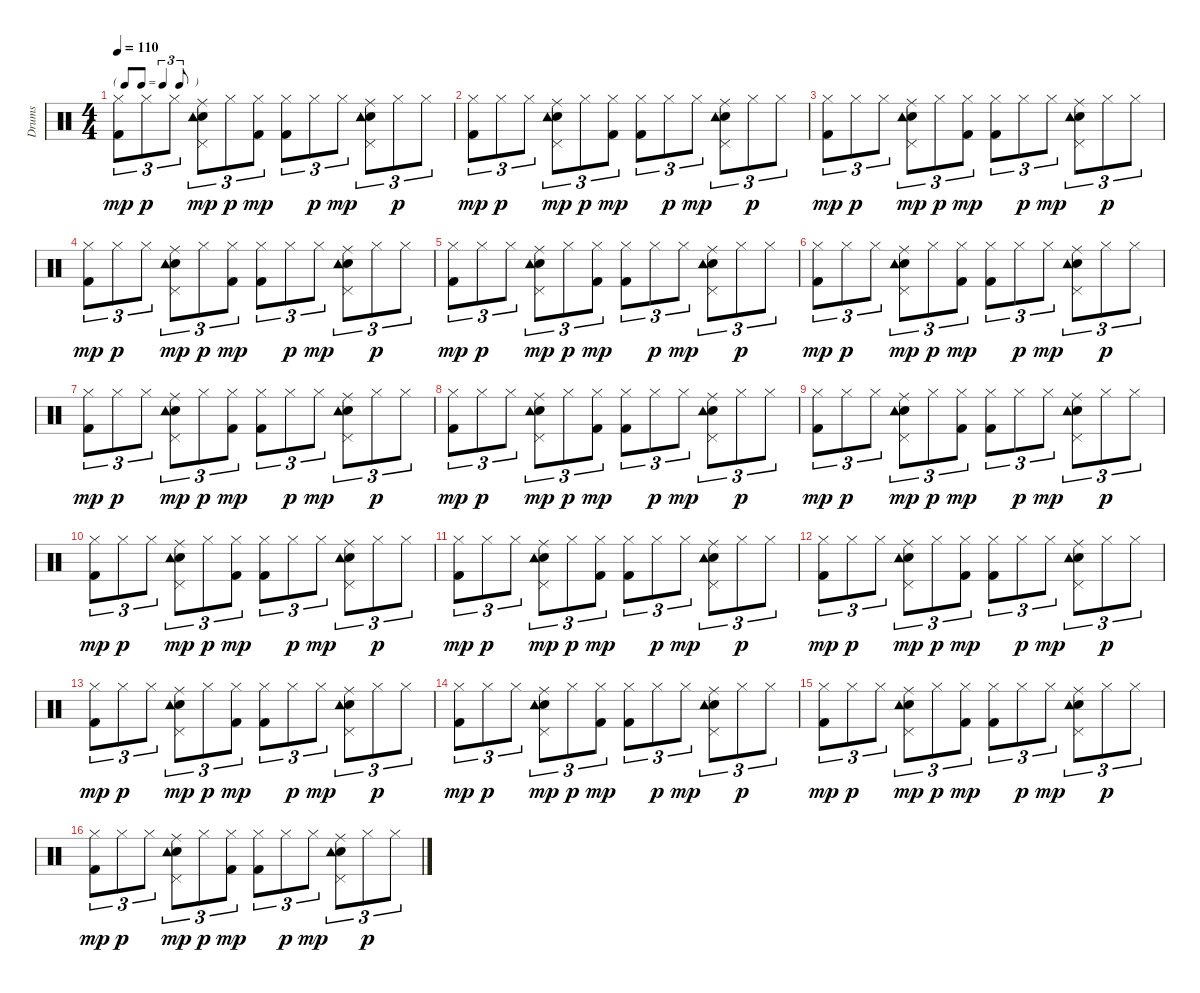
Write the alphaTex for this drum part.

\track ("Drums" "Drums") {instrument percussion}
\staff {score}
\articulation defaults
\ts (4 4)
\tf triplet8th
\tempo 110
\clef neutral
\ks c
("Kick (hit) 2" "Hi-Hat (closed)").8{tu (3 2) dy mp} "Hi-Hat (closed)".8{tu (3 2) dy p} "Hi-Hat (closed)".8{tu (3 2)} ("Snare (hit) 2" "Pedal Hi-Hat (hit)" "Ride (middle)" "Tambourine (hit)").8{tu (3 2) dy mp} "Hi-Hat (closed)".8{tu (3 2) dy p} ("Hi-Hat (closed)" "Kick (hit) 2").8{tu (3 2) dy mp} ("Kick (hit) 2" "Hi-Hat (closed)").8{tu (3 2)} "Hi-Hat (closed)".8{tu (3 2) dy p} "Hi-Hat (closed)".8{tu (3 2) dy mp} ("Snare (hit) 2" "Pedal Hi-Hat (hit)" "Ride (middle)" "Tambourine (hit)").8{tu (3 2)} "Hi-Hat (closed)".8{tu (3 2) dy p} "Hi-Hat (closed)".8{tu (3 2)} |
("Kick (hit) 2" "Hi-Hat (closed)").8{tu (3 2) dy mp} "Hi-Hat (closed)".8{tu (3 2) dy p} "Hi-Hat (closed)".8{tu (3 2)} ("Snare (hit) 2" "Pedal Hi-Hat (hit)" "Ride (middle)" "Tambourine (hit)").8{tu (3 2) dy mp} "Hi-Hat (closed)".8{tu (3 2) dy p} ("Hi-Hat (closed)" "Kick (hit) 2").8{tu (3 2) dy mp} ("Kick (hit) 2" "Hi-Hat (closed)").8{tu (3 2)} "Hi-Hat (closed)".8{tu (3 2) dy p} "Hi-Hat (closed)".8{tu (3 2) dy mp} ("Snare (hit) 2" "Pedal Hi-Hat (hit)" "Ride (middle)" "Tambourine (hit)").8{tu (3 2)} "Hi-Hat (closed)".8{tu (3 2) dy p} "Hi-Hat (closed)".8{tu (3 2)} |
("Kick (hit) 2" "Hi-Hat (closed)").8{tu (3 2) dy mp} "Hi-Hat (closed)".8{tu (3 2) dy p} "Hi-Hat (closed)".8{tu (3 2)} ("Snare (hit) 2" "Pedal Hi-Hat (hit)" "Ride (middle)" "Tambourine (hit)").8{tu (3 2) dy mp} "Hi-Hat (closed)".8{tu (3 2) dy p} ("Hi-Hat (closed)" "Kick (hit) 2").8{tu (3 2) dy mp} ("Kick (hit) 2" "Hi-Hat (closed)").8{tu (3 2)} "Hi-Hat (closed)".8{tu (3 2) dy p} "Hi-Hat (closed)".8{tu (3 2) dy mp} ("Snare (hit) 2" "Pedal Hi-Hat (hit)" "Ride (middle)" "Tambourine (hit)").8{tu (3 2)} "Hi-Hat (closed)".8{tu (3 2) dy p} "Hi-Hat (closed)".8{tu (3 2)} |
("Kick (hit) 2" "Hi-Hat (closed)").8{tu (3 2) dy mp} "Hi-Hat (closed)".8{tu (3 2) dy p} "Hi-Hat (closed)".8{tu (3 2)} ("Snare (hit) 2" "Pedal Hi-Hat (hit)" "Ride (middle)" "Tambourine (hit)").8{tu (3 2) dy mp} "Hi-Hat (closed)".8{tu (3 2) dy p} ("Hi-Hat (closed)" "Kick (hit) 2").8{tu (3 2) dy mp} ("Kick (hit) 2" "Hi-Hat (closed)").8{tu (3 2)} "Hi-Hat (closed)".8{tu (3 2) dy p} "Hi-Hat (closed)".8{tu (3 2) dy mp} ("Snare (hit) 2" "Pedal Hi-Hat (hit)" "Ride (middle)" "Tambourine (hit)").8{tu (3 2)} "Hi-Hat (closed)".8{tu (3 2) dy p} "Hi-Hat (closed)".8{tu (3 2)} |
("Kick (hit) 2" "Hi-Hat (closed)").8{tu (3 2) dy mp} "Hi-Hat (closed)".8{tu (3 2) dy p} "Hi-Hat (closed)".8{tu (3 2)} ("Snare (hit) 2" "Pedal Hi-Hat (hit)" "Ride (middle)" "Tambourine (hit)").8{tu (3 2) dy mp} "Hi-Hat (closed)".8{tu (3 2) dy p} ("Hi-Hat (closed)" "Kick (hit) 2").8{tu (3 2) dy mp} ("Kick (hit) 2" "Hi-Hat (closed)").8{tu (3 2)} "Hi-Hat (closed)".8{tu (3 2) dy p} "Hi-Hat (closed)".8{tu (3 2) dy mp} ("Snare (hit) 2" "Pedal Hi-Hat (hit)" "Ride (middle)" "Tambourine (hit)").8{tu (3 2)} "Hi-Hat (closed)".8{tu (3 2) dy p} "Hi-Hat (closed)".8{tu (3 2)} |
("Kick (hit) 2" "Hi-Hat (closed)").8{tu (3 2) dy mp} "Hi-Hat (closed)".8{tu (3 2) dy p} "Hi-Hat (closed)".8{tu (3 2)} ("Snare (hit) 2" "Pedal Hi-Hat (hit)" "Ride (middle)" "Tambourine (hit)").8{tu (3 2) dy mp} "Hi-Hat (closed)".8{tu (3 2) dy p} ("Hi-Hat (closed)" "Kick (hit) 2").8{tu (3 2) dy mp} ("Kick (hit) 2" "Hi-Hat (closed)").8{tu (3 2)} "Hi-Hat (closed)".8{tu (3 2) dy p} "Hi-Hat (closed)".8{tu (3 2) dy mp} ("Snare (hit) 2" "Pedal Hi-Hat (hit)" "Ride (middle)" "Tambourine (hit)").8{tu (3 2)} "Hi-Hat (closed)".8{tu (3 2) dy p} "Hi-Hat (closed)".8{tu (3 2)} |
("Kick (hit) 2" "Hi-Hat (closed)").8{tu (3 2) dy mp} "Hi-Hat (closed)".8{tu (3 2) dy p} "Hi-Hat (closed)".8{tu (3 2)} ("Snare (hit) 2" "Pedal Hi-Hat (hit)" "Ride (middle)" "Tambourine (hit)").8{tu (3 2) dy mp} "Hi-Hat (closed)".8{tu (3 2) dy p} ("Hi-Hat (closed)" "Kick (hit) 2").8{tu (3 2) dy mp} ("Kick (hit) 2" "Hi-Hat (closed)").8{tu (3 2)} "Hi-Hat (closed)".8{tu (3 2) dy p} "Hi-Hat (closed)".8{tu (3 2) dy mp} ("Snare (hit) 2" "Pedal Hi-Hat (hit)" "Ride (middle)" "Tambourine (hit)").8{tu (3 2)} "Hi-Hat (closed)".8{tu (3 2) dy p} "Hi-Hat (closed)".8{tu (3 2)} |
("Kick (hit) 2" "Hi-Hat (closed)").8{tu (3 2) dy mp} "Hi-Hat (closed)".8{tu (3 2) dy p} "Hi-Hat (closed)".8{tu (3 2)} ("Snare (hit) 2" "Pedal Hi-Hat (hit)" "Ride (middle)" "Tambourine (hit)").8{tu (3 2) dy mp} "Hi-Hat (closed)".8{tu (3 2) dy p} ("Hi-Hat (closed)" "Kick (hit) 2").8{tu (3 2) dy mp} ("Kick (hit) 2" "Hi-Hat (closed)").8{tu (3 2)} "Hi-Hat (closed)".8{tu (3 2) dy p} "Hi-Hat (closed)".8{tu (3 2) dy mp} ("Snare (hit) 2" "Pedal Hi-Hat (hit)" "Ride (middle)" "Tambourine (hit)").8{tu (3 2)} "Hi-Hat (closed)".8{tu (3 2) dy p} "Hi-Hat (closed)".8{tu (3 2)} |
("Kick (hit) 2" "Hi-Hat (closed)").8{tu (3 2) dy mp} "Hi-Hat (closed)".8{tu (3 2) dy p} "Hi-Hat (closed)".8{tu (3 2)} ("Snare (hit) 2" "Pedal Hi-Hat (hit)" "Ride (middle)" "Tambourine (hit)").8{tu (3 2) dy mp} "Hi-Hat (closed)".8{tu (3 2) dy p} ("Hi-Hat (closed)" "Kick (hit) 2").8{tu (3 2) dy mp} ("Kick (hit) 2" "Hi-Hat (closed)").8{tu (3 2)} "Hi-Hat (closed)".8{tu (3 2) dy p} "Hi-Hat (closed)".8{tu (3 2) dy mp} ("Snare (hit) 2" "Pedal Hi-Hat (hit)" "Ride (middle)" "Tambourine (hit)").8{tu (3 2)} "Hi-Hat (closed)".8{tu (3 2) dy p} "Hi-Hat (closed)".8{tu (3 2)} |
("Kick (hit) 2" "Hi-Hat (closed)").8{tu (3 2) dy mp} "Hi-Hat (closed)".8{tu (3 2) dy p} "Hi-Hat (closed)".8{tu (3 2)} ("Snare (hit) 2" "Pedal Hi-Hat (hit)" "Ride (middle)" "Tambourine (hit)").8{tu (3 2) dy mp} "Hi-Hat (closed)".8{tu (3 2) dy p} ("Hi-Hat (closed)" "Kick (hit) 2").8{tu (3 2) dy mp} ("Kick (hit) 2" "Hi-Hat (closed)").8{tu (3 2)} "Hi-Hat (closed)".8{tu (3 2) dy p} "Hi-Hat (closed)".8{tu (3 2) dy mp} ("Snare (hit) 2" "Pedal Hi-Hat (hit)" "Ride (middle)" "Tambourine (hit)").8{tu (3 2)} "Hi-Hat (closed)".8{tu (3 2) dy p} "Hi-Hat (closed)".8{tu (3 2)} |
("Kick (hit) 2" "Hi-Hat (closed)").8{tu (3 2) dy mp} "Hi-Hat (closed)".8{tu (3 2) dy p} "Hi-Hat (closed)".8{tu (3 2)} ("Snare (hit) 2" "Pedal Hi-Hat (hit)" "Ride (middle)" "Tambourine (hit)").8{tu (3 2) dy mp} "Hi-Hat (closed)".8{tu (3 2) dy p} ("Hi-Hat (closed)" "Kick (hit) 2").8{tu (3 2) dy mp} ("Kick (hit) 2" "Hi-Hat (closed)").8{tu (3 2)} "Hi-Hat (closed)".8{tu (3 2) dy p} "Hi-Hat (closed)".8{tu (3 2) dy mp} ("Snare (hit) 2" "Pedal Hi-Hat (hit)" "Ride (middle)" "Tambourine (hit)").8{tu (3 2)} "Hi-Hat (closed)".8{tu (3 2) dy p} "Hi-Hat (closed)".8{tu (3 2)} |
("Kick (hit) 2" "Hi-Hat (closed)").8{tu (3 2) dy mp} "Hi-Hat (closed)".8{tu (3 2) dy p} "Hi-Hat (closed)".8{tu (3 2)} ("Snare (hit) 2" "Pedal Hi-Hat (hit)" "Ride (middle)" "Tambourine (hit)").8{tu (3 2) dy mp} "Hi-Hat (closed)".8{tu (3 2) dy p} ("Hi-Hat (closed)" "Kick (hit) 2").8{tu (3 2) dy mp} ("Kick (hit) 2" "Hi-Hat (closed)").8{tu (3 2)} "Hi-Hat (closed)".8{tu (3 2) dy p} "Hi-Hat (closed)".8{tu (3 2) dy mp} ("Snare (hit) 2" "Pedal Hi-Hat (hit)" "Ride (middle)" "Tambourine (hit)").8{tu (3 2)} "Hi-Hat (closed)".8{tu (3 2) dy p} "Hi-Hat (closed)".8{tu (3 2)} |
("Kick (hit) 2" "Hi-Hat (closed)").8{tu (3 2) dy mp} "Hi-Hat (closed)".8{tu (3 2) dy p} "Hi-Hat (closed)".8{tu (3 2)} ("Snare (hit) 2" "Pedal Hi-Hat (hit)" "Ride (middle)" "Tambourine (hit)").8{tu (3 2) dy mp} "Hi-Hat (closed)".8{tu (3 2) dy p} ("Hi-Hat (closed)" "Kick (hit) 2").8{tu (3 2) dy mp} ("Kick (hit) 2" "Hi-Hat (closed)").8{tu (3 2)} "Hi-Hat (closed)".8{tu (3 2) dy p} "Hi-Hat (closed)".8{tu (3 2) dy mp} ("Snare (hit) 2" "Pedal Hi-Hat (hit)" "Ride (middle)" "Tambourine (hit)").8{tu (3 2)} "Hi-Hat (closed)".8{tu (3 2) dy p} "Hi-Hat (closed)".8{tu (3 2)} |
("Kick (hit) 2" "Hi-Hat (closed)").8{tu (3 2) dy mp} "Hi-Hat (closed)".8{tu (3 2) dy p} "Hi-Hat (closed)".8{tu (3 2)} ("Snare (hit) 2" "Pedal Hi-Hat (hit)" "Ride (middle)" "Tambourine (hit)").8{tu (3 2) dy mp} "Hi-Hat (closed)".8{tu (3 2) dy p} ("Hi-Hat (closed)" "Kick (hit) 2").8{tu (3 2) dy mp} ("Kick (hit) 2" "Hi-Hat (closed)").8{tu (3 2)} "Hi-Hat (closed)".8{tu (3 2) dy p} "Hi-Hat (closed)".8{tu (3 2) dy mp} ("Snare (hit) 2" "Pedal Hi-Hat (hit)" "Ride (middle)" "Tambourine (hit)").8{tu (3 2)} "Hi-Hat (closed)".8{tu (3 2) dy p} "Hi-Hat (closed)".8{tu (3 2)} |
("Kick (hit) 2" "Hi-Hat (closed)").8{tu (3 2) dy mp} "Hi-Hat (closed)".8{tu (3 2) dy p} "Hi-Hat (closed)".8{tu (3 2)} ("Snare (hit) 2" "Pedal Hi-Hat (hit)" "Ride (middle)" "Tambourine (hit)").8{tu (3 2) dy mp} "Hi-Hat (closed)".8{tu (3 2) dy p} ("Hi-Hat (closed)" "Kick (hit) 2").8{tu (3 2) dy mp} ("Kick (hit) 2" "Hi-Hat (closed)").8{tu (3 2)} "Hi-Hat (closed)".8{tu (3 2) dy p} "Hi-Hat (closed)".8{tu (3 2) dy mp} ("Snare (hit) 2" "Pedal Hi-Hat (hit)" "Ride (middle)" "Tambourine (hit)").8{tu (3 2)} "Hi-Hat (closed)".8{tu (3 2) dy p} "Hi-Hat (closed)".8{tu (3 2)} |
("Kick (hit) 2" "Hi-Hat (closed)").8{tu (3 2) dy mp} "Hi-Hat (closed)".8{tu (3 2) dy p} "Hi-Hat (closed)".8{tu (3 2)} ("Snare (hit) 2" "Pedal Hi-Hat (hit)" "Ride (middle)" "Tambourine (hit)").8{tu (3 2) dy mp} "Hi-Hat (closed)".8{tu (3 2) dy p} ("Hi-Hat (closed)" "Kick (hit) 2").8{tu (3 2) dy mp} ("Kick (hit) 2" "Hi-Hat (closed)").8{tu (3 2)} "Hi-Hat (closed)".8{tu (3 2) dy p} "Hi-Hat (closed)".8{tu (3 2) dy mp} ("Snare (hit) 2" "Pedal Hi-Hat (hit)" "Ride (middle)" "Tambourine (hit)").8{tu (3 2)} "Hi-Hat (closed)".8{tu (3 2) dy p} "Hi-Hat (closed)".8{tu (3 2)}
